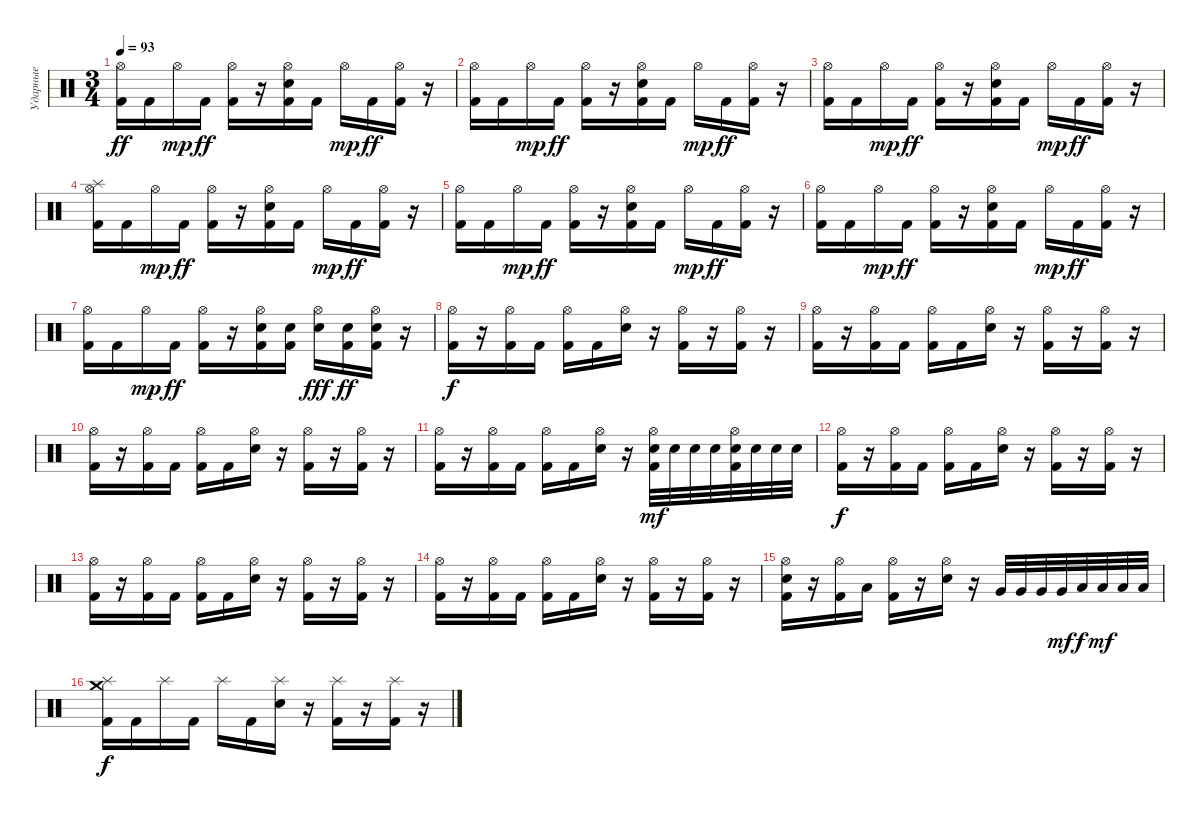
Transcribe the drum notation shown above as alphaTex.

\track ("Ударные" "Ударные") {instrument percussion}
\staff {score}
\articulation defaults
\ts (3 4)
\tempo 93
\clef neutral
\ks c
("Hi-Hat (open)" "Kick (hit) 2").16{dy ff} "Kick (hit) 2".16 "Hi-Hat (open)".16{dy mp} "Kick (hit) 2".16{dy ff} ("Hi-Hat (open)" "Kick (hit) 2").16 r.16 ("Hi-Hat (open)" "Electric Snare (hit)" "Kick (hit) 2").16 "Kick (hit) 2".16 "Hi-Hat (open)".16{dy mp} "Kick (hit) 2".16{dy ff} ("Hi-Hat (open)" "Kick (hit) 2").16 r.16 |
("Hi-Hat (open)" "Kick (hit) 2").16 "Kick (hit) 2".16 "Hi-Hat (open)".16{dy mp} "Kick (hit) 2".16{dy ff} ("Hi-Hat (open)" "Kick (hit) 2").16 r.16 ("Hi-Hat (open)" "Electric Snare (hit)" "Kick (hit) 2").16 "Kick (hit) 2".16 "Hi-Hat (open)".16{dy mp} "Kick (hit) 2".16{dy ff} ("Hi-Hat (open)" "Kick (hit) 2").16 r.16 |
("Hi-Hat (open)" "Kick (hit) 2").16 "Kick (hit) 2".16 "Hi-Hat (open)".16{dy mp} "Kick (hit) 2".16{dy ff} ("Hi-Hat (open)" "Kick (hit) 2").16 r.16 ("Hi-Hat (open)" "Electric Snare (hit)" "Kick (hit) 2").16 "Kick (hit) 2".16 "Hi-Hat (open)".16{dy mp} "Kick (hit) 2".16{dy ff} ("Hi-Hat (open)" "Kick (hit) 2").16 r.16 |
("Hi-Hat (open)" "Splash (hit)" "Kick (hit) 2").16 "Kick (hit) 2".16 "Hi-Hat (open)".16{dy mp} "Kick (hit) 2".16{dy ff} ("Hi-Hat (open)" "Kick (hit) 2").16 r.16 ("Hi-Hat (open)" "Electric Snare (hit)" "Kick (hit) 2").16 "Kick (hit) 2".16 "Hi-Hat (open)".16{dy mp} "Kick (hit) 2".16{dy ff} ("Hi-Hat (open)" "Kick (hit) 2").16 r.16 |
("Hi-Hat (open)" "Kick (hit) 2").16 "Kick (hit) 2".16 "Hi-Hat (open)".16{dy mp} "Kick (hit) 2".16{dy ff} ("Hi-Hat (open)" "Kick (hit) 2").16 r.16 ("Hi-Hat (open)" "Electric Snare (hit)" "Kick (hit) 2").16 "Kick (hit) 2".16 "Hi-Hat (open)".16{dy mp} "Kick (hit) 2".16{dy ff} ("Hi-Hat (open)" "Kick (hit) 2").16 r.16 |
("Hi-Hat (open)" "Kick (hit) 2").16 "Kick (hit) 2".16 "Hi-Hat (open)".16{dy mp} "Kick (hit) 2".16{dy ff} ("Hi-Hat (open)" "Kick (hit) 2").16 r.16 ("Hi-Hat (open)" "Electric Snare (hit)" "Kick (hit) 2").16 "Kick (hit) 2".16 "Hi-Hat (open)".16{dy mp} "Kick (hit) 2".16{dy ff} ("Hi-Hat (open)" "Kick (hit) 2").16 r.16 |
("Hi-Hat (open)" "Kick (hit) 2").16 "Kick (hit) 2".16 "Hi-Hat (open)".16{dy mp} "Kick (hit) 2".16{dy ff} ("Hi-Hat (open)" "Kick (hit) 2").16 r.16 ("Hi-Hat (open)" "Electric Snare (hit)" "Kick (hit) 2").16 ("Electric Snare (hit)" "Kick (hit) 2").16 ("Hi-Hat (open)" "Electric Snare (hit)").16{dy fff} ("Electric Snare (hit)" "Kick (hit) 2").16{dy ff} ("Hi-Hat (open)" "Electric Snare (hit)" "Kick (hit) 2").16 r.16 |
("Hi-Hat (open)" "Kick (hit) 2").16{dy f} r.16 ("Hi-Hat (open)" "Kick (hit) 2").16 "Kick (hit) 2".16 ("Hi-Hat (open)" "Kick (hit) 2").16 "Kick (hit) 2".16 ("Hi-Hat (open)" "Electric Snare (hit)").16 r.16 ("Hi-Hat (open)" "Kick (hit) 2").16 r.16 ("Hi-Hat (open)" "Kick (hit) 2").16 r.16 |
("Hi-Hat (open)" "Kick (hit) 2").16 r.16 ("Hi-Hat (open)" "Kick (hit) 2").16 "Kick (hit) 2".16 ("Hi-Hat (open)" "Kick (hit) 2").16 "Kick (hit) 2".16 ("Hi-Hat (open)" "Electric Snare (hit)").16 r.16 ("Hi-Hat (open)" "Kick (hit) 2").16 r.16 ("Hi-Hat (open)" "Kick (hit) 2").16 r.16 |
("Hi-Hat (open)" "Kick (hit) 2").16 r.16 ("Hi-Hat (open)" "Kick (hit) 2").16 "Kick (hit) 2".16 ("Hi-Hat (open)" "Kick (hit) 2").16 "Kick (hit) 2".16 ("Hi-Hat (open)" "Electric Snare (hit)").16 r.16 ("Hi-Hat (open)" "Kick (hit) 2").16 r.16 ("Hi-Hat (open)" "Kick (hit) 2").16 r.16 |
("Hi-Hat (open)" "Kick (hit) 2").16 r.16 ("Hi-Hat (open)" "Kick (hit) 2").16 "Kick (hit) 2".16 ("Hi-Hat (open)" "Kick (hit) 2").16 "Kick (hit) 2".16 ("Hi-Hat (open)" "Electric Snare (hit)").16 r.16 ("Hi-Hat (open)" "Electric Snare (hit)" "Kick (hit) 2").32{dy mf} "Electric Snare (hit)".32 "Electric Snare (hit)".32 "Electric Snare (hit)".32 ("Hi-Hat (open)" "Electric Snare (hit)" "Kick (hit) 2").32 "Electric Snare (hit)".32 "Electric Snare (hit)".32 "Electric Snare (hit)".32 |
("Hi-Hat (open)" "Kick (hit) 2").16{dy f} r.16 ("Hi-Hat (open)" "Kick (hit) 2").16 "Kick (hit) 2".16 ("Hi-Hat (open)" "Kick (hit) 2").16 "Kick (hit) 2".16 ("Hi-Hat (open)" "Electric Snare (hit)").16 r.16 ("Hi-Hat (open)" "Kick (hit) 2").16 r.16 ("Hi-Hat (open)" "Kick (hit) 2").16 r.16 |
("Hi-Hat (open)" "Kick (hit) 2").16 r.16 ("Hi-Hat (open)" "Kick (hit) 2").16 "Kick (hit) 2".16 ("Hi-Hat (open)" "Kick (hit) 2").16 "Kick (hit) 2".16 ("Hi-Hat (open)" "Electric Snare (hit)").16 r.16 ("Hi-Hat (open)" "Kick (hit) 2").16 r.16 ("Hi-Hat (open)" "Kick (hit) 2").16 r.16 |
("Hi-Hat (open)" "Kick (hit) 2").16 r.16 ("Hi-Hat (open)" "Kick (hit) 2").16 "Kick (hit) 2".16 ("Hi-Hat (open)" "Kick (hit) 2").16 "Kick (hit) 2".16 ("Hi-Hat (open)" "Electric Snare (hit)").16 r.16 ("Hi-Hat (open)" "Kick (hit) 2").16 r.16 ("Hi-Hat (open)" "Kick (hit) 2").16 r.16 |
("Hi-Hat (open)" "Electric Snare (hit)" "Kick (hit) 2").16 r.16 ("Hi-Hat (open)" "Kick (hit) 2").16 "Low Floor Tom (hit)".16 ("Hi-Hat (open)" "Kick (hit) 2").16 r.16 ("Hi-Hat (open)" "Electric Snare (hit)").16 r.16 "Very Low Tom (hit)".32 "Very Low Tom (hit)".32 "Very Low Tom (hit)".32 "Very Low Tom (hit)".32{dy mf} "Low Floor Tom (hit)".32{dy f} "Low Floor Tom (hit)".32{dy mf} "Low Floor Tom (hit)".32 "Low Floor Tom (hit)".32 |
("Splash (hit)" "Crash medium (hit)" "Kick (hit) 2").16{dy f} "Kick (hit) 2".16 "Splash (hit)".16 "Kick (hit) 2".16 "Splash (hit)".16 "Kick (hit) 2".16 ("Splash (hit)" "Electric Snare (hit)").16 r.16 ("Splash (hit)" "Kick (hit) 2").16 r.16 ("Splash (hit)" "Kick (hit) 2").16 r.16
